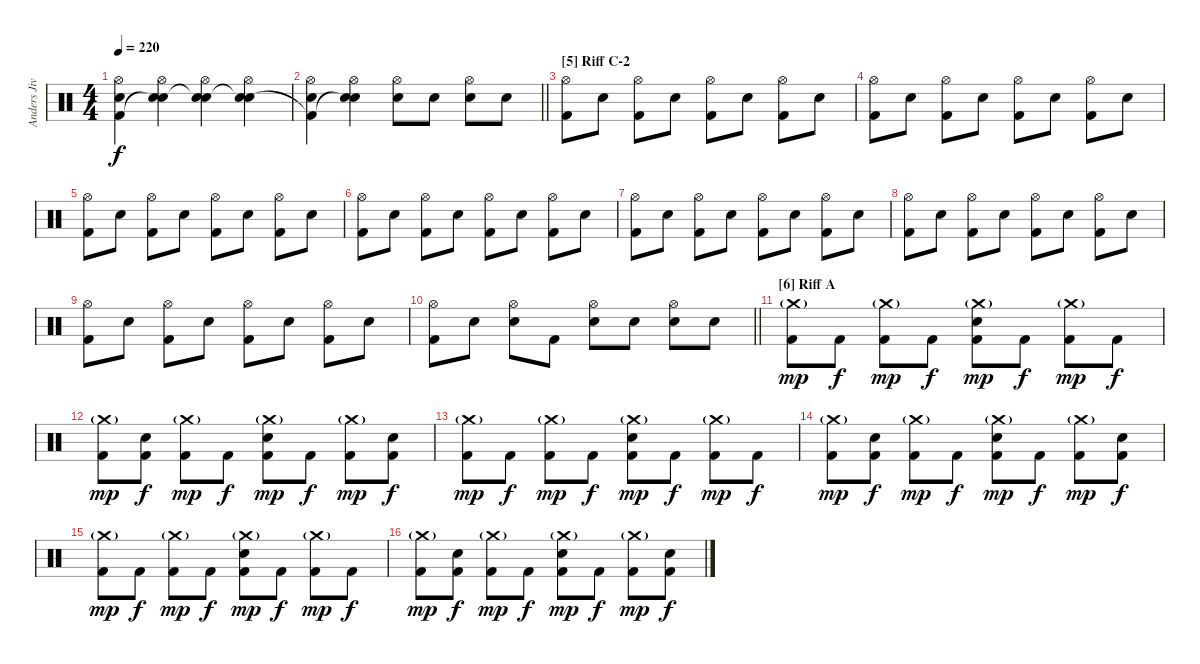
\track ("Anders Jivarp" "Anders Jiv") {instrument percussion}
\staff {score}
\articulation defaults
\ts (4 4)
\tempo 220
\clef neutral
\ks c
("Hi-Hat (open)" "Snare (hit) 2" "Kick (hit) 2"{t}).4{dy f} ("Hi-Hat (open)" "Snare (hit) 2" "Snare (hit)"{t}).4 ("Hi-Hat (open)" "Snare (hit) 2" "Snare (hit)"{t}).4 ("Hi-Hat (open)" "Snare (hit) 2" "Snare (hit)"{t}).4 |
\barLineRight lightlight
("Hi-Hat (open)" "Snare (hit) 2" "Kick (hit) 2"{t}).4 ("Hi-Hat (open)" "Snare (hit) 2" "Snare (hit)"{t}).4 ("Hi-Hat (open)" "Snare (hit) 2").8 "Snare (hit) 2".8 ("Hi-Hat (open)" "Snare (hit) 2").8 "Snare (hit) 2".8 |
\section ("" "[5] Riff C-2")
("Hi-Hat (open)" "Kick (hit) 2").8 "Snare (hit) 2".8 ("Hi-Hat (open)" "Kick (hit) 2").8 "Snare (hit) 2".8 ("Hi-Hat (open)" "Kick (hit) 2").8 "Snare (hit) 2".8 ("Hi-Hat (open)" "Kick (hit) 2").8 "Snare (hit) 2".8 |
("Hi-Hat (open)" "Kick (hit) 2").8 "Snare (hit) 2".8 ("Hi-Hat (open)" "Kick (hit) 2").8 "Snare (hit) 2".8 ("Hi-Hat (open)" "Kick (hit) 2").8 "Snare (hit) 2".8 ("Hi-Hat (open)" "Kick (hit) 2").8 "Snare (hit) 2".8 |
("Hi-Hat (open)" "Kick (hit) 2").8 "Snare (hit) 2".8 ("Hi-Hat (open)" "Kick (hit) 2").8 "Snare (hit) 2".8 ("Hi-Hat (open)" "Kick (hit) 2").8 "Snare (hit) 2".8 ("Hi-Hat (open)" "Kick (hit) 2").8 "Snare (hit) 2".8 |
("Hi-Hat (open)" "Kick (hit) 2").8 "Snare (hit) 2".8 ("Hi-Hat (open)" "Kick (hit) 2").8 "Snare (hit) 2".8 ("Hi-Hat (open)" "Kick (hit) 2").8 "Snare (hit) 2".8 ("Hi-Hat (open)" "Kick (hit) 2").8 "Snare (hit) 2".8 |
("Hi-Hat (open)" "Kick (hit) 2").8 "Snare (hit) 2".8 ("Hi-Hat (open)" "Kick (hit) 2").8 "Snare (hit) 2".8 ("Hi-Hat (open)" "Kick (hit) 2").8 "Snare (hit) 2".8 ("Hi-Hat (open)" "Kick (hit) 2").8 "Snare (hit) 2".8 |
("Hi-Hat (open)" "Kick (hit) 2").8 "Snare (hit) 2".8 ("Hi-Hat (open)" "Kick (hit) 2").8 "Snare (hit) 2".8 ("Hi-Hat (open)" "Kick (hit) 2").8 "Snare (hit) 2".8 ("Hi-Hat (open)" "Kick (hit) 2").8 "Snare (hit) 2".8 |
("Hi-Hat (open)" "Kick (hit) 2").8 "Snare (hit) 2".8 ("Hi-Hat (open)" "Kick (hit) 2").8 "Snare (hit) 2".8 ("Hi-Hat (open)" "Kick (hit) 2").8 "Snare (hit) 2".8 ("Hi-Hat (open)" "Kick (hit) 2").8 "Snare (hit) 2".8 |
\barLineRight lightlight
("Hi-Hat (open)" "Kick (hit) 2").8 "Snare (hit) 2".8 ("Hi-Hat (open)" "Snare (hit) 2").8 "Kick (hit) 2".8 ("Hi-Hat (open)" "Snare (hit) 2").8 "Snare (hit) 2".8 ("Hi-Hat (open)" "Snare (hit) 2").8 "Snare (hit) 2".8 |
\section ("" "[6] Riff A")
("Crash medium (hit)"{g} "Kick (hit) 2").8{dy mp} "Kick (hit) 2".8{dy f} ("Crash medium (hit)"{g} "Kick (hit) 2").8{dy mp} "Kick (hit) 2".8{dy f} ("Crash medium (hit)"{g} "Snare (hit) 2" "Kick (hit) 2").8{dy mp} "Kick (hit) 2".8{dy f} ("Crash medium (hit)"{g} "Kick (hit) 2").8{dy mp} "Kick (hit) 2".8{dy f} |
("Crash medium (hit)"{g} "Kick (hit) 2").8{dy mp} ("Snare (hit) 2" "Kick (hit) 2").8{dy f} ("Crash medium (hit)"{g} "Kick (hit) 2").8{dy mp} "Kick (hit) 2".8{dy f} ("Crash medium (hit)"{g} "Snare (hit) 2" "Kick (hit) 2").8{dy mp} "Kick (hit) 2".8{dy f} ("Crash medium (hit)"{g} "Kick (hit) 2").8{dy mp} ("Snare (hit) 2" "Kick (hit) 2").8{dy f} |
("Crash medium (hit)"{g} "Kick (hit) 2").8{dy mp} "Kick (hit) 2".8{dy f} ("Crash medium (hit)"{g} "Kick (hit) 2").8{dy mp} "Kick (hit) 2".8{dy f} ("Crash medium (hit)"{g} "Snare (hit) 2" "Kick (hit) 2").8{dy mp} "Kick (hit) 2".8{dy f} ("Crash medium (hit)"{g} "Kick (hit) 2").8{dy mp} "Kick (hit) 2".8{dy f} |
("Crash medium (hit)"{g} "Kick (hit) 2").8{dy mp} ("Snare (hit) 2" "Kick (hit) 2").8{dy f} ("Crash medium (hit)"{g} "Kick (hit) 2").8{dy mp} "Kick (hit) 2".8{dy f} ("Crash medium (hit)"{g} "Snare (hit) 2" "Kick (hit) 2").8{dy mp} "Kick (hit) 2".8{dy f} ("Crash medium (hit)"{g} "Kick (hit) 2").8{dy mp} ("Snare (hit) 2" "Kick (hit) 2").8{dy f} |
("Crash medium (hit)"{g} "Kick (hit) 2").8{dy mp} "Kick (hit) 2".8{dy f} ("Crash medium (hit)"{g} "Kick (hit) 2").8{dy mp} "Kick (hit) 2".8{dy f} ("Crash medium (hit)"{g} "Snare (hit) 2" "Kick (hit) 2").8{dy mp} "Kick (hit) 2".8{dy f} ("Crash medium (hit)"{g} "Kick (hit) 2").8{dy mp} "Kick (hit) 2".8{dy f} |
("Crash medium (hit)"{g} "Kick (hit) 2").8{dy mp} ("Snare (hit) 2" "Kick (hit) 2").8{dy f} ("Crash medium (hit)"{g} "Kick (hit) 2").8{dy mp} "Kick (hit) 2".8{dy f} ("Crash medium (hit)"{g} "Snare (hit) 2" "Kick (hit) 2").8{dy mp} "Kick (hit) 2".8{dy f} ("Crash medium (hit)"{g} "Kick (hit) 2").8{dy mp} ("Snare (hit) 2" "Kick (hit) 2").8{dy f}
